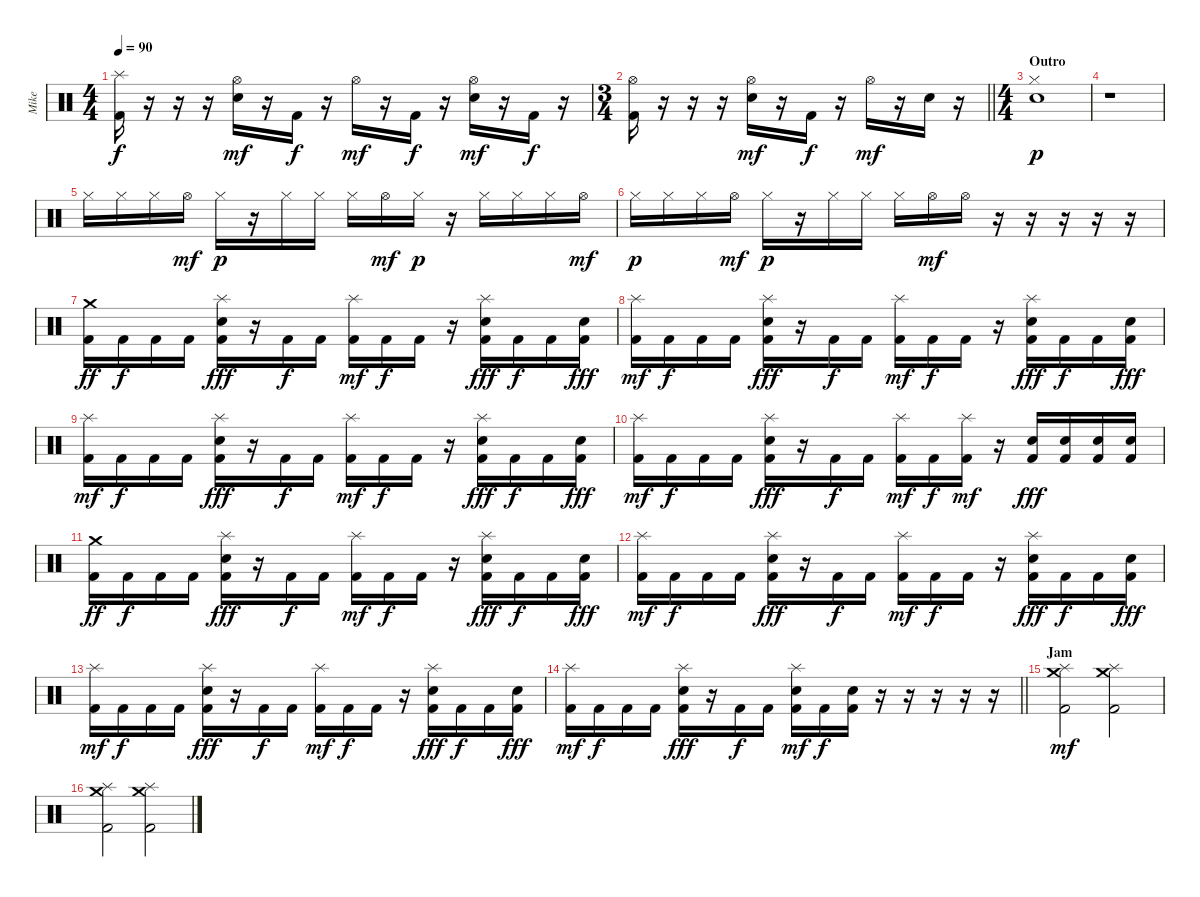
\track ("Mike" "Mike") {instrument percussion}
\staff {score}
\articulation defaults
\ts (4 4)
\tempo 90
\clef neutral
\ks c
("Splash (hit)" "Kick (hit) 2").16{dy f} r.16 r.16 r.16 ("Hi-Hat (open)" "Snare (hit) 2").16{dy mf} r.16 "Kick (hit) 2".16{dy f} r.16 "Hi-Hat (open)".16{dy mf} r.16 "Kick (hit) 2".16{dy f} r.16 ("Hi-Hat (open)" "Snare (hit) 2").16{dy mf} r.16 "Kick (hit) 2".16{dy f} r.16 |
\ts (3 4)
\barLineRight lightlight
("Hi-Hat (open)" "Kick (hit) 2").16 r.16 r.16 r.16 ("Hi-Hat (open)" "Snare (hit) 2").16{dy mf} r.16 "Kick (hit) 2".16{dy f} r.16 "Hi-Hat (open)".16{dy mf} r.16 "Snare (hit) 2".16 r.16 |
\ts (4 4)
\section ("" "Outro")
("Hi-Hat (closed)" "Snare (hit) 2").1{dy p} |
r.1 |
"Hi-Hat (closed)".16 "Hi-Hat (closed)".16 "Hi-Hat (closed)".16 "Hi-Hat (open)".16{dy mf} "Hi-Hat (closed)".16{dy p} r.16 "Hi-Hat (closed)".16 "Hi-Hat (closed)".16 "Hi-Hat (closed)".16 "Hi-Hat (open)".16{dy mf} "Hi-Hat (closed)".16{dy p} r.16 "Hi-Hat (closed)".16 "Hi-Hat (closed)".16 "Hi-Hat (closed)".16 "Hi-Hat (open)".16{dy mf} |
"Hi-Hat (closed)".16{dy p} "Hi-Hat (closed)".16 "Hi-Hat (closed)".16 "Hi-Hat (open)".16{dy mf} "Hi-Hat (closed)".16{dy p} r.16 "Hi-Hat (closed)".16 "Hi-Hat (closed)".16 "Hi-Hat (closed)".16 "Hi-Hat (open)".16{dy mf} "Hi-Hat (open)".16 r.16 r.16 r.16 r.16 r.16 |
("Crash medium (hit)" "Kick (hit) 2").16{dy ff} "Kick (hit) 2".16{dy f} "Kick (hit) 2".16 "Kick (hit) 2".16 ("Splash (hit)" "Snare (hit) 2" "Kick (hit) 2").16{dy fff} r.16 "Kick (hit) 2".16{dy f} "Kick (hit) 2".16 ("Splash (hit)" "Kick (hit) 2").16{dy mf} "Kick (hit) 2".16{dy f} "Kick (hit) 2".16 r.16 ("Splash (hit)" "Snare (hit) 2" "Kick (hit) 2").16{dy fff} "Kick (hit) 2".16{dy f} "Kick (hit) 2".16 ("Snare (hit) 2" "Kick (hit) 2").16{dy fff} |
("Splash (hit)" "Kick (hit) 2").16{dy mf} "Kick (hit) 2".16{dy f} "Kick (hit) 2".16 "Kick (hit) 2".16 ("Splash (hit)" "Snare (hit) 2" "Kick (hit) 2").16{dy fff} r.16 "Kick (hit) 2".16{dy f} "Kick (hit) 2".16 ("Splash (hit)" "Kick (hit) 2").16{dy mf} "Kick (hit) 2".16{dy f} "Kick (hit) 2".16 r.16 ("Splash (hit)" "Snare (hit) 2" "Kick (hit) 2").16{dy fff} "Kick (hit) 2".16{dy f} "Kick (hit) 2".16 ("Snare (hit) 2" "Kick (hit) 2").16{dy fff} |
("Splash (hit)" "Kick (hit) 2").16{dy mf} "Kick (hit) 2".16{dy f} "Kick (hit) 2".16 "Kick (hit) 2".16 ("Splash (hit)" "Snare (hit) 2" "Kick (hit) 2").16{dy fff} r.16 "Kick (hit) 2".16{dy f} "Kick (hit) 2".16 ("Splash (hit)" "Kick (hit) 2").16{dy mf} "Kick (hit) 2".16{dy f} "Kick (hit) 2".16 r.16 ("Splash (hit)" "Snare (hit) 2" "Kick (hit) 2").16{dy fff} "Kick (hit) 2".16{dy f} "Kick (hit) 2".16 ("Snare (hit) 2" "Kick (hit) 2").16{dy fff} |
("Splash (hit)" "Kick (hit) 2").16{dy mf} "Kick (hit) 2".16{dy f} "Kick (hit) 2".16 "Kick (hit) 2".16 ("Splash (hit)" "Snare (hit) 2" "Kick (hit) 2").16{dy fff} r.16 "Kick (hit) 2".16{dy f} "Kick (hit) 2".16 ("Splash (hit)" "Kick (hit) 2").16{dy mf} "Kick (hit) 2".16{dy f} ("Splash (hit)" "Kick (hit) 2").16{dy mf} r.16 ("Snare (hit) 2" "Kick (hit) 2").16{dy fff} ("Snare (hit) 2" "Kick (hit) 2").16 ("Snare (hit) 2" "Kick (hit) 2").16 ("Snare (hit) 2" "Kick (hit) 2").16 |
("Crash medium (hit)" "Kick (hit) 2").16{dy ff} "Kick (hit) 2".16{dy f} "Kick (hit) 2".16 "Kick (hit) 2".16 ("Splash (hit)" "Snare (hit) 2" "Kick (hit) 2").16{dy fff} r.16 "Kick (hit) 2".16{dy f} "Kick (hit) 2".16 ("Splash (hit)" "Kick (hit) 2").16{dy mf} "Kick (hit) 2".16{dy f} "Kick (hit) 2".16 r.16 ("Splash (hit)" "Snare (hit) 2" "Kick (hit) 2").16{dy fff} "Kick (hit) 2".16{dy f} "Kick (hit) 2".16 ("Snare (hit) 2" "Kick (hit) 2").16{dy fff} |
("Splash (hit)" "Kick (hit) 2").16{dy mf} "Kick (hit) 2".16{dy f} "Kick (hit) 2".16 "Kick (hit) 2".16 ("Splash (hit)" "Snare (hit) 2" "Kick (hit) 2").16{dy fff} r.16 "Kick (hit) 2".16{dy f} "Kick (hit) 2".16 ("Splash (hit)" "Kick (hit) 2").16{dy mf} "Kick (hit) 2".16{dy f} "Kick (hit) 2".16 r.16 ("Splash (hit)" "Snare (hit) 2" "Kick (hit) 2").16{dy fff} "Kick (hit) 2".16{dy f} "Kick (hit) 2".16 ("Snare (hit) 2" "Kick (hit) 2").16{dy fff} |
("Splash (hit)" "Kick (hit) 2").16{dy mf} "Kick (hit) 2".16{dy f} "Kick (hit) 2".16 "Kick (hit) 2".16 ("Splash (hit)" "Snare (hit) 2" "Kick (hit) 2").16{dy fff} r.16 "Kick (hit) 2".16{dy f} "Kick (hit) 2".16 ("Splash (hit)" "Kick (hit) 2").16{dy mf} "Kick (hit) 2".16{dy f} "Kick (hit) 2".16 r.16 ("Splash (hit)" "Snare (hit) 2" "Kick (hit) 2").16{dy fff} "Kick (hit) 2".16{dy f} "Kick (hit) 2".16 ("Snare (hit) 2" "Kick (hit) 2").16{dy fff} |
\barLineRight lightlight
("Splash (hit)" "Kick (hit) 2").16{dy mf} "Kick (hit) 2".16{dy f} "Kick (hit) 2".16 "Kick (hit) 2".16 ("Splash (hit)" "Snare (hit) 2" "Kick (hit) 2").16{dy fff} r.16 "Kick (hit) 2".16{dy f} "Kick (hit) 2".16 ("Splash (hit)" "Snare (hit) 2" "Kick (hit) 2").16{dy mf} "Kick (hit) 2".16{dy f} ("Snare (hit) 2" "Kick (hit) 2").16 r.16 r.16 r.16 r.16 r.16 |
\section ("" "Jam")
("Splash (hit)" "Crash medium (hit)" "Kick (hit) 2").2{dy mf volume 7} ("Splash (hit)" "Crash medium (hit)" "Kick (hit) 2").2 |
("Splash (hit)" "Crash medium (hit)" "Kick (hit) 2").2 ("Splash (hit)" "Crash medium (hit)" "Kick (hit) 2").2
